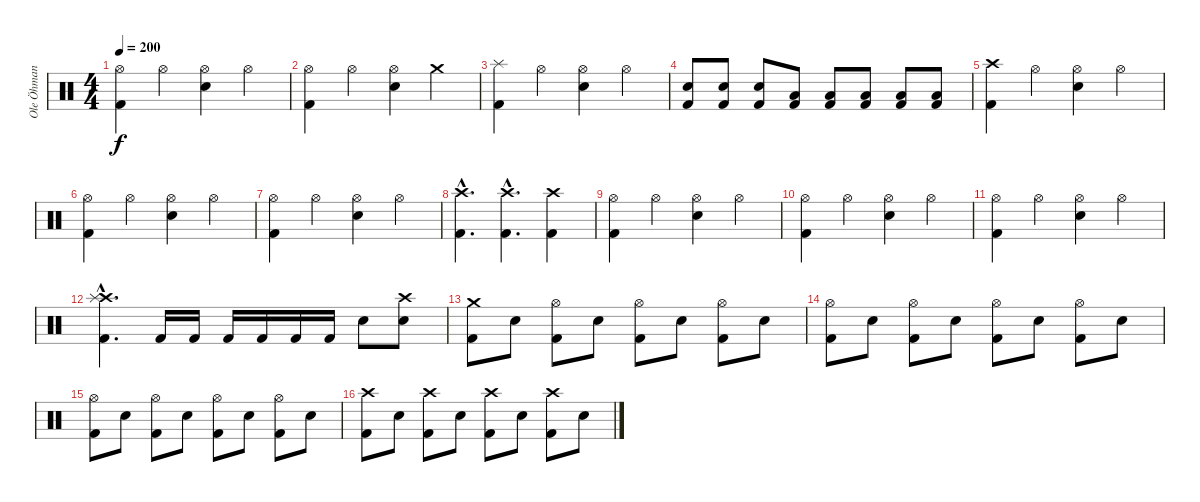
\track ("Ole Öhman" "Ole Öhman") {instrument percussion}
\staff {score}
\articulation defaults
\ts (4 4)
\tempo 200
\clef neutral
\ks c
("Hi-Hat (open)" "Kick (hit) 2").4{dy f} "Hi-Hat (open)".4 ("Hi-Hat (open)" "Snare (hit) 2").4 "Hi-Hat (open)".4 |
("Hi-Hat (open)" "Kick (hit) 2").4 "Hi-Hat (open)".4 ("Snare (hit) 2" "Hi-Hat (open)").4 "Crash medium (hit)".4 |
("Splash (hit)" "Kick (hit) 2").4 "Hi-Hat (open)".4 ("Hi-Hat (open)" "Snare (hit) 2").4 "Hi-Hat (open)".4 |
("Snare (hit) 2" "Kick (hit) 2").8 ("Snare (hit) 2" "Kick (hit) 2").8 ("Snare (hit) 2" "Kick (hit) 2").8 ("Low Tom (hit)" "Kick (hit) 2").8 ("Low Tom (hit)" "Kick (hit) 2").8 ("Low Floor Tom (hit)" "Kick (hit) 2").8 ("Low Floor Tom (hit)" "Kick (hit) 2").8 ("Low Floor Tom (hit)" "Kick (hit) 2").8 |
("Crash high (hit)" "Kick (hit) 2").4 "Hi-Hat (open)".4 ("Hi-Hat (open)" "Snare (hit) 2").4 "Hi-Hat (open)".4 |
("Hi-Hat (open)" "Kick (hit) 2").4 "Hi-Hat (open)".4 ("Snare (hit) 2" "Hi-Hat (open)").4 "Hi-Hat (open)".4 |
("Hi-Hat (open)" "Kick (hit) 2").4 "Hi-Hat (open)".4 ("Hi-Hat (open)" "Snare (hit) 2").4 "Hi-Hat (open)".4 |
("Crash high (hit)"{hac} "Kick (hit) 2"{hac}).4{d} ("Crash high (hit)"{hac} "Kick (hit) 2"{hac}).4{d} ("Crash high (hit)" "Kick (hit) 2").4 |
("Hi-Hat (open)" "Kick (hit) 2").4 "Hi-Hat (open)".4 ("Hi-Hat (open)" "Snare (hit) 2").4 "Hi-Hat (open)".4 |
("Hi-Hat (open)" "Kick (hit) 2").4 "Hi-Hat (open)".4 ("Snare (hit) 2" "Hi-Hat (open)").4 "Hi-Hat (open)".4 |
("Hi-Hat (open)" "Kick (hit) 2").4 "Hi-Hat (open)".4 ("Hi-Hat (open)" "Snare (hit) 2").4 "Hi-Hat (open)".4 |
("Crash high (hit)"{hac} "Splash (hit)"{hac} "Kick (hit) 2"{hac}).4{d} "Kick (hit) 2".16 "Kick (hit) 2".16 "Kick (hit) 2".16 "Kick (hit) 2".16 "Kick (hit) 2".16 "Kick (hit) 2".16 "Snare (hit) 2".8 ("Crash high (hit)" "Snare (hit) 2").8 |
("Crash medium (hit)" "Kick (hit) 2").8 "Snare (hit) 2".8 ("Hi-Hat (open)" "Kick (hit) 2").8 "Snare (hit) 2".8 ("Hi-Hat (open)" "Kick (hit) 2").8 "Snare (hit) 2".8 ("Hi-Hat (open)" "Kick (hit) 2").8 "Snare (hit) 2".8 |
("Hi-Hat (open)" "Kick (hit) 2").8 "Snare (hit) 2".8 ("Hi-Hat (open)" "Kick (hit) 2").8 "Snare (hit) 2".8 ("Hi-Hat (open)" "Kick (hit) 2").8 "Snare (hit) 2".8 ("Hi-Hat (open)" "Kick (hit) 2").8 "Snare (hit) 2".8 |
("Hi-Hat (open)" "Kick (hit) 2").8 "Snare (hit) 2".8 ("Hi-Hat (open)" "Kick (hit) 2").8 "Snare (hit) 2".8 ("Hi-Hat (open)" "Kick (hit) 2").8 "Snare (hit) 2".8 ("Hi-Hat (open)" "Kick (hit) 2").8 "Snare (hit) 2".8 |
("Crash high (hit)" "Kick (hit) 2").8 "Snare (hit) 2".8 ("Crash high (hit)" "Kick (hit) 2").8 "Snare (hit) 2".8 ("Crash high (hit)" "Kick (hit) 2").8 "Snare (hit) 2".8 ("Crash high (hit)" "Kick (hit) 2").8 "Snare (hit) 2".8
